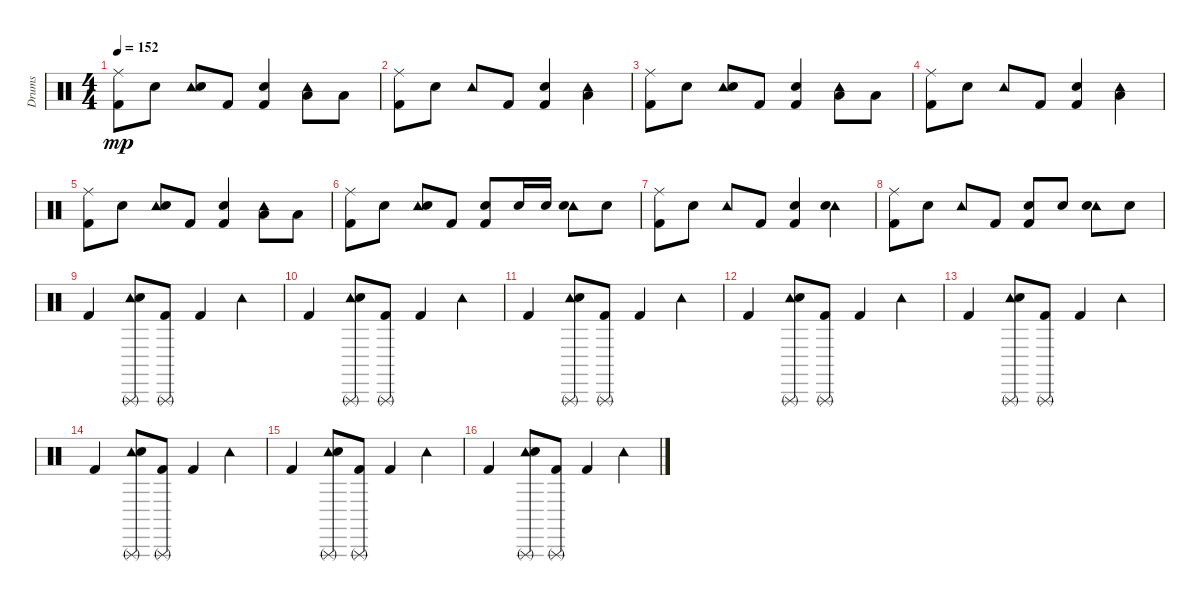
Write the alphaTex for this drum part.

\track ("Drums" "Drums") {instrument percussion}
\staff {score}
\articulation defaults
\ts (4 4)
\tempo 152
\clef neutral
\ks c
("Ride (middle)" "Kick (hit) 2").8{dy mp} "Snare (hit) 2".8 ("Tambourine (hit)" "Snare (hit) 2").8 "Kick (hit) 2".8 ("Kick (hit) 2" "Snare (hit) 2").4 ("Tambourine (hit)" "Low Tom (hit)").8 "Low Tom (hit)".8 |
("Ride (middle)" "Kick (hit) 2").8 "Snare (hit) 2".8 "Tambourine (hit)".8 "Kick (hit) 2".8 ("Kick (hit) 2" "Snare (hit) 2").4 ("Tambourine (hit)" "Low Tom (hit)").4 |
("Ride (middle)" "Kick (hit) 2").8 "Snare (hit) 2".8 ("Tambourine (hit)" "Snare (hit) 2").8 "Kick (hit) 2".8 ("Kick (hit) 2" "Snare (hit) 2").4 ("Tambourine (hit)" "Low Tom (hit)").8 "Low Tom (hit)".8 |
("Ride (middle)" "Kick (hit) 2").8 "Snare (hit) 2".8 "Tambourine (hit)".8 "Kick (hit) 2".8 ("Kick (hit) 2" "Snare (hit) 2").4 ("Tambourine (hit)" "Low Tom (hit)").4 |
("Ride (middle)" "Kick (hit) 2").8 "Snare (hit) 2".8 ("Tambourine (hit)" "Snare (hit) 2").8 "Kick (hit) 2".8 ("Kick (hit) 2" "Snare (hit) 2").4 ("Tambourine (hit)" "Low Tom (hit)").8 "Low Tom (hit)".8 |
("Ride (middle)" "Kick (hit) 2").8 "Snare (hit) 2".8 ("Tambourine (hit)" "Snare (hit) 2").8 "Kick (hit) 2".8 ("Kick (hit) 2" "Snare (hit) 2").8 "Snare (hit) 2".16 "Snare (hit) 2".16 ("Tambourine (hit)" "Snare (hit) 2").8 "Snare (hit) 2".8 |
("Ride (middle)" "Kick (hit) 2").8 "Snare (hit) 2".8 "Tambourine (hit)".8 "Kick (hit) 2".8 ("Kick (hit) 2" "Snare (hit) 2").4 ("Tambourine (hit)" "Snare (hit) 2").4 |
("Ride (middle)" "Kick (hit) 2").8 "Snare (hit) 2".8 "Tambourine (hit)".8 "Kick (hit) 2".8 ("Kick (hit) 2" "Snare (hit) 2").8 "Snare (hit) 2".8 ("Tambourine (hit)" "Snare (hit) 2").8 "Snare (hit) 2".8 |
"Kick (hit) 2".4 ("Triangle (rnute)" "Tambourine (hit)" "Snare (hit) 2").8 ("Triangle (rnute)" "Kick (hit) 2").8 "Kick (hit) 2".4 "Tambourine (hit)".4 |
"Kick (hit) 2".4 ("Triangle (rnute)" "Tambourine (hit)" "Snare (hit) 2").8 ("Triangle (rnute)" "Kick (hit) 2").8 "Kick (hit) 2".4 "Tambourine (hit)".4 |
"Kick (hit) 2".4 ("Triangle (rnute)" "Tambourine (hit)" "Snare (hit) 2").8 ("Triangle (rnute)" "Kick (hit) 2").8 "Kick (hit) 2".4 "Tambourine (hit)".4 |
"Kick (hit) 2".4 ("Triangle (rnute)" "Tambourine (hit)" "Snare (hit) 2").8 ("Triangle (rnute)" "Kick (hit) 2").8 "Kick (hit) 2".4 "Tambourine (hit)".4 |
"Kick (hit) 2".4 ("Triangle (rnute)" "Tambourine (hit)" "Snare (hit) 2").8 ("Triangle (rnute)" "Kick (hit) 2").8 "Kick (hit) 2".4 "Tambourine (hit)".4 |
"Kick (hit) 2".4 ("Triangle (rnute)" "Tambourine (hit)" "Snare (hit) 2").8 ("Triangle (rnute)" "Kick (hit) 2").8 "Kick (hit) 2".4 "Tambourine (hit)".4 |
"Kick (hit) 2".4 ("Triangle (rnute)" "Tambourine (hit)" "Snare (hit) 2").8 ("Triangle (rnute)" "Kick (hit) 2").8 "Kick (hit) 2".4 "Tambourine (hit)".4 |
"Kick (hit) 2".4 ("Triangle (rnute)" "Tambourine (hit)" "Snare (hit) 2").8 ("Triangle (rnute)" "Kick (hit) 2").8 "Kick (hit) 2".4 "Tambourine (hit)".4
